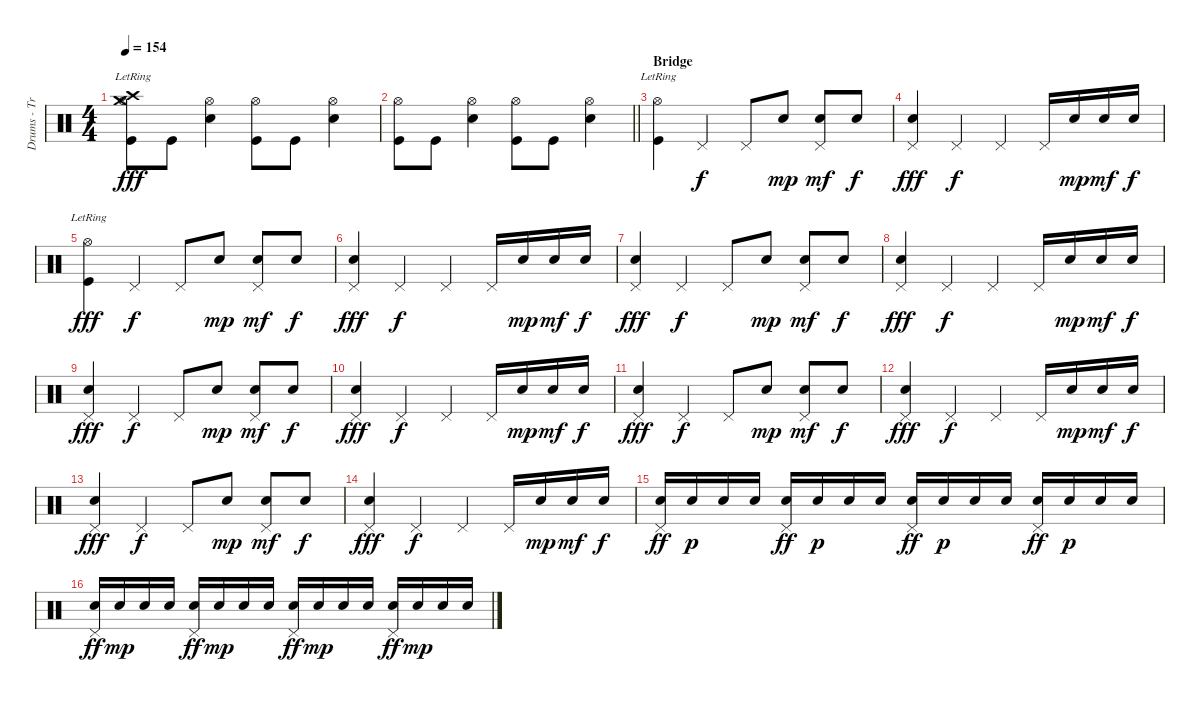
\track ("Drums - Travis" "Drums - Tr") {instrument percussion}
\staff {score}
\articulation defaults
\ts (4 4)
\tempo 154
\clef neutral
\ks c
("Crash high (hit)"{lr} "Hi-Hat (open)" "Crash medium (hit)"{lr} "Kick (hit)").8{dy fff} "Kick (hit)".8 ("Hi-Hat (open)" "Snare (hit) 2").4 ("Hi-Hat (open)" "Kick (hit)").8 "Kick (hit)".8 ("Hi-Hat (open)" "Snare (hit) 2").4 |
\barLineRight lightlight
("Hi-Hat (open)" "Kick (hit)").8 "Kick (hit)".8 ("Hi-Hat (open)" "Snare (hit) 2").4 ("Hi-Hat (open)" "Kick (hit)").8 "Kick (hit)".8 ("Hi-Hat (open)" "Snare (hit) 2").4 |
\section ("" "Bridge ")
("Hi-Hat (open)"{lr} "Kick (hit)").4 "Pedal Hi-Hat (hit)".4{dy f} "Pedal Hi-Hat (hit)".8 "Snare (hit) 2".8{dy mp} ("Pedal Hi-Hat (hit)" "Snare (hit) 2").8{dy mf} "Snare (hit) 2".8{dy f} |
("Pedal Hi-Hat (hit)" "Snare (hit) 2").4{dy fff} "Pedal Hi-Hat (hit)".4{dy f} "Pedal Hi-Hat (hit)".4 "Pedal Hi-Hat (hit)".16 "Snare (hit) 2".16{dy mp} "Snare (hit) 2".16{dy mf} "Snare (hit) 2".16{dy f} |
("Hi-Hat (open)"{lr} "Kick (hit)").4{dy fff} "Pedal Hi-Hat (hit)".4{dy f} "Pedal Hi-Hat (hit)".8 "Snare (hit) 2".8{dy mp} ("Pedal Hi-Hat (hit)" "Snare (hit) 2").8{dy mf} "Snare (hit) 2".8{dy f} |
("Pedal Hi-Hat (hit)" "Snare (hit) 2").4{dy fff} "Pedal Hi-Hat (hit)".4{dy f} "Pedal Hi-Hat (hit)".4 "Pedal Hi-Hat (hit)".16 "Snare (hit) 2".16{dy mp} "Snare (hit) 2".16{dy mf} "Snare (hit) 2".16{dy f} |
("Pedal Hi-Hat (hit)" "Snare (hit) 2").4{dy fff} "Pedal Hi-Hat (hit)".4{dy f} "Pedal Hi-Hat (hit)".8 "Snare (hit) 2".8{dy mp} ("Pedal Hi-Hat (hit)" "Snare (hit) 2").8{dy mf} "Snare (hit) 2".8{dy f} |
("Pedal Hi-Hat (hit)" "Snare (hit) 2").4{dy fff} "Pedal Hi-Hat (hit)".4{dy f} "Pedal Hi-Hat (hit)".4 "Pedal Hi-Hat (hit)".16 "Snare (hit) 2".16{dy mp} "Snare (hit) 2".16{dy mf} "Snare (hit) 2".16{dy f} |
("Pedal Hi-Hat (hit)" "Snare (hit) 2").4{dy fff} "Pedal Hi-Hat (hit)".4{dy f} "Pedal Hi-Hat (hit)".8 "Snare (hit) 2".8{dy mp} ("Pedal Hi-Hat (hit)" "Snare (hit) 2").8{dy mf} "Snare (hit) 2".8{dy f} |
("Pedal Hi-Hat (hit)" "Snare (hit) 2").4{dy fff} "Pedal Hi-Hat (hit)".4{dy f} "Pedal Hi-Hat (hit)".4 "Pedal Hi-Hat (hit)".16 "Snare (hit) 2".16{dy mp} "Snare (hit) 2".16{dy mf} "Snare (hit) 2".16{dy f} |
("Pedal Hi-Hat (hit)" "Snare (hit) 2").4{dy fff} "Pedal Hi-Hat (hit)".4{dy f} "Pedal Hi-Hat (hit)".8 "Snare (hit) 2".8{dy mp} ("Pedal Hi-Hat (hit)" "Snare (hit) 2").8{dy mf} "Snare (hit) 2".8{dy f} |
("Pedal Hi-Hat (hit)" "Snare (hit) 2").4{dy fff} "Pedal Hi-Hat (hit)".4{dy f} "Pedal Hi-Hat (hit)".4 "Pedal Hi-Hat (hit)".16 "Snare (hit) 2".16{dy mp} "Snare (hit) 2".16{dy mf} "Snare (hit) 2".16{dy f} |
("Pedal Hi-Hat (hit)" "Snare (hit) 2").4{dy fff} "Pedal Hi-Hat (hit)".4{dy f} "Pedal Hi-Hat (hit)".8 "Snare (hit) 2".8{dy mp} ("Pedal Hi-Hat (hit)" "Snare (hit) 2").8{dy mf} "Snare (hit) 2".8{dy f} |
("Pedal Hi-Hat (hit)" "Snare (hit) 2").4{dy fff} "Pedal Hi-Hat (hit)".4{dy f} "Pedal Hi-Hat (hit)".4 "Pedal Hi-Hat (hit)".16 "Snare (hit) 2".16{dy mp} "Snare (hit) 2".16{dy mf} "Snare (hit) 2".16{dy f} |
("Pedal Hi-Hat (hit)" "Snare (hit) 2").16{dy ff} "Snare (hit) 2".16{dy p} "Snare (hit) 2".16 "Snare (hit) 2".16 ("Pedal Hi-Hat (hit)" "Snare (hit) 2").16{dy ff} "Snare (hit) 2".16{dy p} "Snare (hit) 2".16 "Snare (hit) 2".16 ("Pedal Hi-Hat (hit)" "Snare (hit) 2").16{dy ff} "Snare (hit) 2".16{dy p} "Snare (hit) 2".16 "Snare (hit) 2".16 ("Pedal Hi-Hat (hit)" "Snare (hit) 2").16{dy ff} "Snare (hit) 2".16{dy p} "Snare (hit) 2".16 "Snare (hit) 2".16 |
("Pedal Hi-Hat (hit)" "Snare (hit) 2").16{dy ff} "Snare (hit) 2".16{dy mp} "Snare (hit) 2".16 "Snare (hit) 2".16 ("Pedal Hi-Hat (hit)" "Snare (hit) 2").16{dy ff} "Snare (hit) 2".16{dy mp} "Snare (hit) 2".16 "Snare (hit) 2".16 ("Pedal Hi-Hat (hit)" "Snare (hit) 2").16{dy ff} "Snare (hit) 2".16{dy mp} "Snare (hit) 2".16 "Snare (hit) 2".16 ("Pedal Hi-Hat (hit)" "Snare (hit) 2").16{dy ff} "Snare (hit) 2".16{dy mp} "Snare (hit) 2".16 "Snare (hit) 2".16
